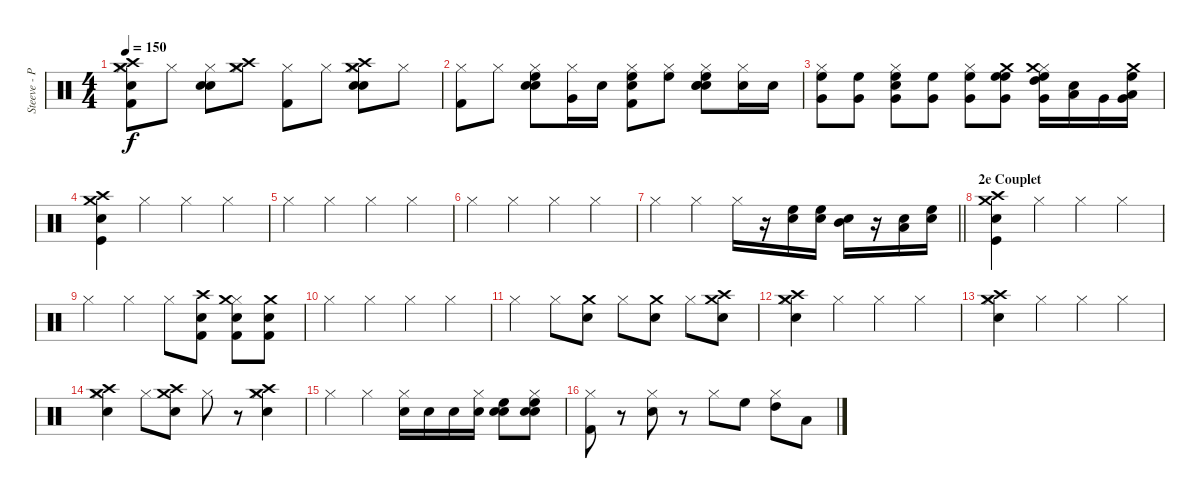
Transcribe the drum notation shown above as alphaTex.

\track ("Steeve - Percussions" "Steeve - P") {instrument percussion}
\staff {score}
\articulation defaults
\ts (4 4)
\tempo 150
\clef neutral
\ks c
("Hi-Hat (closed)" "Kick (hit) 2" "Crash high (hit)" "Snare (hit) 2" "Crash medium (hit)").8{dy f} "Hi-Hat (closed)".8 ("Hi-Hat (closed)" "Snare (hit) 2" "Electric Snare (hit)").8 ("Hi-Hat (closed)" "Crash high (hit)" "Crash medium (hit)").8 ("Hi-Hat (closed)" "Kick (hit) 2").8 "Hi-Hat (closed)".8 ("Hi-Hat (closed)" "Snare (hit) 2" "Electric Snare (hit)" "Crash high (hit)" "Crash medium (hit)").8 "Hi-Hat (closed)".8 |
("Hi-Hat (closed)" "Kick (hit) 2").8 "Hi-Hat (closed)".8 ("Hi-Hat (closed)" "Snare (hit) 2" "Electric Snare (hit)" "High Floor Tom (hit)").8 ("Hi-Hat (closed)" "Very Low Tom (hit)").16 "Snare (hit) 2".16 ("Hi-Hat (closed)" "Kick (hit) 2" "Snare (hit) 2" "High Floor Tom (hit)").8 ("Hi-Hat (closed)" "High Floor Tom (hit)").8 ("Hi-Hat (closed)" "Snare (hit) 2" "Electric Snare (hit)" "Snare (hit) 2" "High Floor Tom (hit)").8 ("Hi-Hat (closed)" "Snare (hit) 2").16 "Snare (hit) 2".16 |
("Hi-Hat (closed)" "High Floor Tom (hit)" "Very Low Tom (hit)").8 ("High Floor Tom (hit)" "Very Low Tom (hit)").8 ("Hi-Hat (closed)" "High Floor Tom (hit)" "Snare (hit) 2" "Very Low Tom (hit)").8 ("High Floor Tom (hit)" "Very Low Tom (hit)").8 ("Hi-Hat (closed)" "High Floor Tom (hit)" "Very Low Tom (hit)").8 ("High Floor Tom (hit)" "High Floor Tom (hit)" "Very Low Tom (hit)" "Crash medium (hit)").8 ("Hi-Hat (closed)" "High Floor Tom (hit)" "High Tom (hit)" "Very Low Tom (hit)" "Crash medium (hit)").16 ("Low Tom (hit)" "Snare (hit) 2").16 "Very Low Tom (hit)".16 ("High Floor Tom (hit)" "Low Tom (hit)" "Very Low Tom (hit)" "Crash medium (hit)").16 |
("Snare (hit) 2" "Kick (hit)" "Crash medium (hit)" "Crash high (hit)").4 "Hi-Hat (closed)".4 "Hi-Hat (closed)".4 "Hi-Hat (closed)".4 |
"Hi-Hat (closed)".4 "Hi-Hat (closed)".4 "Hi-Hat (closed)".4 "Hi-Hat (closed)".4 |
"Hi-Hat (closed)".4 "Hi-Hat (closed)".4 "Hi-Hat (closed)".4 "Hi-Hat (closed)".4 |
\barLineRight lightlight "Hi-Hat (closed)".4 "Hi-Hat (closed)".4 "Hi-Hat (closed)".16
r.16 ("High Floor Tom (hit)" "Snare (hit) 2").16 ("High Floor Tom (hit)" "Snare (hit) 2").16 ("Mid Tom (hit)" "Snare (hit) 2").16 r.16 ("Low Tom (hit)" "Snare (hit) 2").16 ("High Floor Tom (hit)" "Snare (hit) 2").16 |
\section ("" "2e Couplet")
("Snare (hit) 2" "Kick (hit)" "Crash medium (hit)" "Crash high (hit)").4 "Hi-Hat (closed)".4 "Hi-Hat (closed)".4 "Hi-Hat (closed)".4 |
"Hi-Hat (closed)".4 "Hi-Hat (closed)".4 "Hi-Hat (closed)".8 ("Kick (hit) 2" "Snare (hit) 2" "Crash high (hit)").8 ("Hi-Hat (closed)" "Kick (hit) 2" "Snare (hit) 2" "Crash medium (hit)").8 ("Kick (hit) 2" "Snare (hit) 2" "Crash medium (hit)").8 |
"Hi-Hat (closed)".4 "Hi-Hat (closed)".4 "Hi-Hat (closed)".4 "Hi-Hat (closed)".4 |
"Hi-Hat (closed)".4 "Hi-Hat (closed)".8 ("Crash medium (hit)" "Snare (hit) 2").8 "Hi-Hat (closed)".8 ("Crash medium (hit)" "Snare (hit) 2").8 "Hi-Hat (closed)".8 ("Crash high (hit)" "Crash medium (hit)" "Snare (hit) 2").8 |
("Hi-Hat (closed)" "Crash high (hit)" "Crash medium (hit)" "Snare (hit) 2").4 "Hi-Hat (closed)".4 "Hi-Hat (closed)".4 "Hi-Hat (closed)".4 |
("Hi-Hat (closed)" "Snare (hit) 2" "Crash medium (hit)" "Crash high (hit)").4 "Hi-Hat (closed)".4 "Hi-Hat (closed)".4 "Hi-Hat (closed)".4 |
("Hi-Hat (closed)" "Snare (hit) 2" "Crash medium (hit)" "Crash high (hit)").4 "Hi-Hat (closed)".8 ("Snare (hit) 2" "Crash medium (hit)" "Crash high (hit)").8 "Hi-Hat (closed)".8 r.8 ("Hi-Hat (closed)" "Snare (hit) 2" "Crash medium (hit)" "Crash high (hit)").4 |
"Hi-Hat (closed)".4 "Hi-Hat (closed)".4 ("Hi-Hat (closed)" "Snare (hit) 2").16 "Snare (hit) 2".16 "Snare (hit) 2".16 ("Hi-Hat (closed)" "Snare (hit) 2").16 ("Snare (hit)" "High Floor Tom (hit)" "Snare (hit) 2").8 ("Hi-Hat (closed)" "Snare (hit)" "High Floor Tom (hit)" "Snare (hit) 2").8 |
("Hi-Hat (closed)" "Kick (hit) 2").8 r.8 ("Hi-Hat (closed)" "Snare (hit) 2").8 r.8 "Hi-Hat (closed)".8 "High Floor Tom (hit)".8 ("Hi-Hat (closed)" "High Tom (hit)").8 "Low Tom (hit)".8
